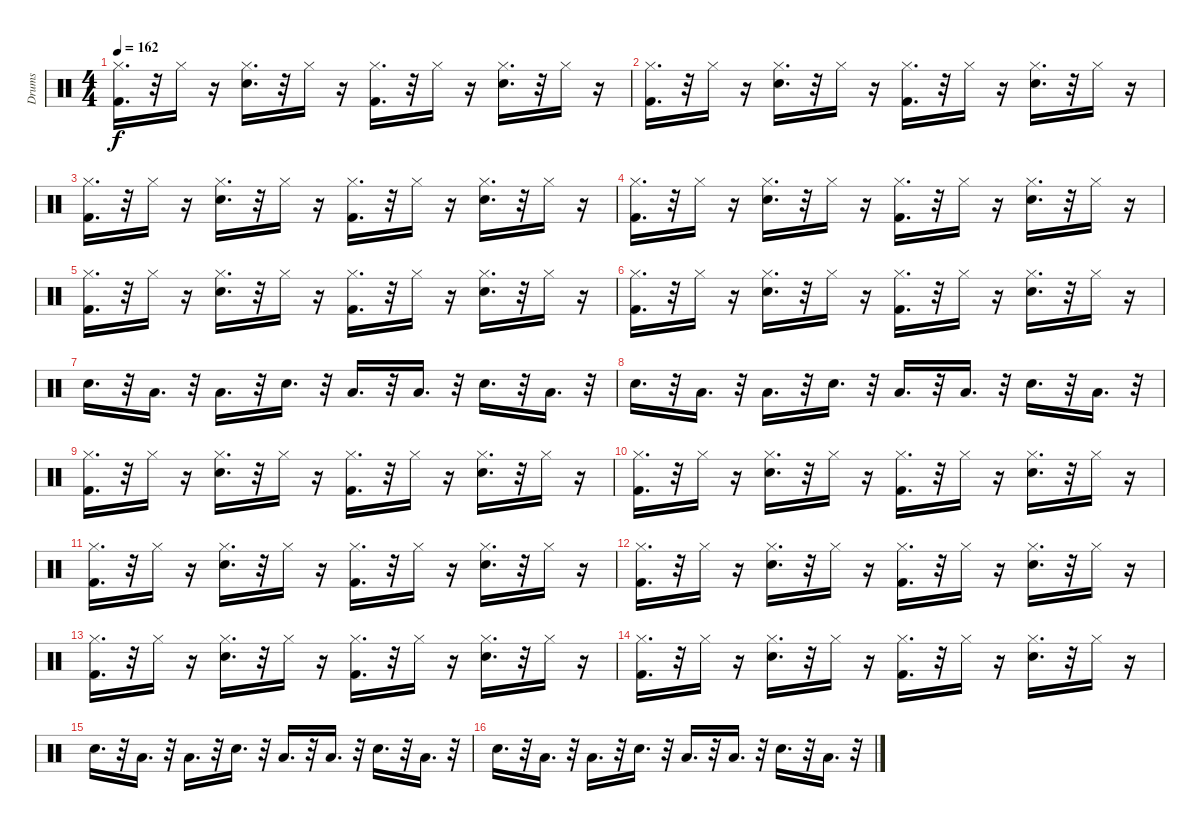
\track ("Drums" "Drums") {instrument percussion}
\staff {score}
\articulation defaults
\ts (4 4)
\tempo 162
\clef neutral
\ks c
("Hi-Hat (closed)" "Kick (hit) 2").16{d dy f} r.32 "Hi-Hat (closed)".16 r.16 ("Hi-Hat (closed)" "Snare (hit) 2").16{d} r.32 "Hi-Hat (closed)".16 r.16 ("Hi-Hat (closed)" "Kick (hit) 2").16{d} r.32 "Hi-Hat (closed)".16 r.16 ("Hi-Hat (closed)" "Snare (hit) 2").16{d} r.32 "Hi-Hat (closed)".16 r.16 |
("Hi-Hat (closed)" "Kick (hit) 2").16{d} r.32 "Hi-Hat (closed)".16 r.16 ("Hi-Hat (closed)" "Snare (hit) 2").16{d} r.32 "Hi-Hat (closed)".16 r.16 ("Hi-Hat (closed)" "Kick (hit) 2").16{d} r.32 "Hi-Hat (closed)".16 r.16 ("Hi-Hat (closed)" "Snare (hit) 2").16{d} r.32 "Hi-Hat (closed)".16 r.16 |
("Hi-Hat (closed)" "Kick (hit) 2").16{d} r.32 "Hi-Hat (closed)".16 r.16 ("Hi-Hat (closed)" "Snare (hit) 2").16{d} r.32 "Hi-Hat (closed)".16 r.16 ("Hi-Hat (closed)" "Kick (hit) 2").16{d} r.32 "Hi-Hat (closed)".16 r.16 ("Hi-Hat (closed)" "Snare (hit) 2").16{d} r.32 "Hi-Hat (closed)".16 r.16 |
("Hi-Hat (closed)" "Kick (hit) 2").16{d} r.32 "Hi-Hat (closed)".16 r.16 ("Hi-Hat (closed)" "Snare (hit) 2").16{d} r.32 "Hi-Hat (closed)".16 r.16 ("Hi-Hat (closed)" "Kick (hit) 2").16{d} r.32 "Hi-Hat (closed)".16 r.16 ("Hi-Hat (closed)" "Snare (hit) 2").16{d} r.32 "Hi-Hat (closed)".16 r.16 |
("Hi-Hat (closed)" "Kick (hit) 2").16{d} r.32 "Hi-Hat (closed)".16 r.16 ("Hi-Hat (closed)" "Snare (hit) 2").16{d} r.32 "Hi-Hat (closed)".16 r.16 ("Hi-Hat (closed)" "Kick (hit) 2").16{d} r.32 "Hi-Hat (closed)".16 r.16 ("Hi-Hat (closed)" "Snare (hit) 2").16{d} r.32 "Hi-Hat (closed)".16 r.16 |
("Hi-Hat (closed)" "Kick (hit) 2").16{d} r.32 "Hi-Hat (closed)".16 r.16 ("Hi-Hat (closed)" "Snare (hit) 2").16{d} r.32 "Hi-Hat (closed)".16 r.16 ("Hi-Hat (closed)" "Kick (hit) 2").16{d} r.32 "Hi-Hat (closed)".16 r.16 ("Hi-Hat (closed)" "Snare (hit) 2").16{d} r.32 "Hi-Hat (closed)".16 r.16 |
"Snare (hit) 2".16{d} r.32 "Low Floor Tom (hit)".16{d} r.32 "Low Floor Tom (hit)".16{d} r.32 "Snare (hit) 2".16{d} r.32 "Low Floor Tom (hit)".16{d} r.32 "Low Floor Tom (hit)".16{d} r.32 "Snare (hit) 2".16{d} r.32 "Low Floor Tom (hit)".16{d} r.32 |
"Snare (hit) 2".16{d} r.32 "Low Floor Tom (hit)".16{d} r.32 "Low Floor Tom (hit)".16{d} r.32 "Snare (hit) 2".16{d} r.32 "Low Floor Tom (hit)".16{d} r.32 "Low Floor Tom (hit)".16{d} r.32 "Snare (hit) 2".16{d} r.32 "Low Floor Tom (hit)".16{d} r.32 |
("Hi-Hat (closed)" "Kick (hit) 2").16{d} r.32 "Hi-Hat (closed)".16 r.16 ("Hi-Hat (closed)" "Snare (hit) 2").16{d} r.32 "Hi-Hat (closed)".16 r.16 ("Hi-Hat (closed)" "Kick (hit) 2").16{d} r.32 "Hi-Hat (closed)".16 r.16 ("Hi-Hat (closed)" "Snare (hit) 2").16{d} r.32 "Hi-Hat (closed)".16 r.16 |
("Hi-Hat (closed)" "Kick (hit) 2").16{d} r.32 "Hi-Hat (closed)".16 r.16 ("Hi-Hat (closed)" "Snare (hit) 2").16{d} r.32 "Hi-Hat (closed)".16 r.16 ("Hi-Hat (closed)" "Kick (hit) 2").16{d} r.32 "Hi-Hat (closed)".16 r.16 ("Hi-Hat (closed)" "Snare (hit) 2").16{d} r.32 "Hi-Hat (closed)".16 r.16 |
("Hi-Hat (closed)" "Kick (hit) 2").16{d} r.32 "Hi-Hat (closed)".16 r.16 ("Hi-Hat (closed)" "Snare (hit) 2").16{d} r.32 "Hi-Hat (closed)".16 r.16 ("Hi-Hat (closed)" "Kick (hit) 2").16{d} r.32 "Hi-Hat (closed)".16 r.16 ("Hi-Hat (closed)" "Snare (hit) 2").16{d} r.32 "Hi-Hat (closed)".16 r.16 |
("Hi-Hat (closed)" "Kick (hit) 2").16{d} r.32 "Hi-Hat (closed)".16 r.16 ("Hi-Hat (closed)" "Snare (hit) 2").16{d} r.32 "Hi-Hat (closed)".16 r.16 ("Hi-Hat (closed)" "Kick (hit) 2").16{d} r.32 "Hi-Hat (closed)".16 r.16 ("Hi-Hat (closed)" "Snare (hit) 2").16{d} r.32 "Hi-Hat (closed)".16 r.16 |
("Hi-Hat (closed)" "Kick (hit) 2").16{d} r.32 "Hi-Hat (closed)".16 r.16 ("Hi-Hat (closed)" "Snare (hit) 2").16{d} r.32 "Hi-Hat (closed)".16 r.16 ("Hi-Hat (closed)" "Kick (hit) 2").16{d} r.32 "Hi-Hat (closed)".16 r.16 ("Hi-Hat (closed)" "Snare (hit) 2").16{d} r.32 "Hi-Hat (closed)".16 r.16 |
("Hi-Hat (closed)" "Kick (hit) 2").16{d} r.32 "Hi-Hat (closed)".16 r.16 ("Hi-Hat (closed)" "Snare (hit) 2").16{d} r.32 "Hi-Hat (closed)".16 r.16 ("Hi-Hat (closed)" "Kick (hit) 2").16{d} r.32 "Hi-Hat (closed)".16 r.16 ("Hi-Hat (closed)" "Snare (hit) 2").16{d} r.32 "Hi-Hat (closed)".16 r.16 |
"Snare (hit) 2".16{d} r.32 "Low Floor Tom (hit)".16{d} r.32 "Low Floor Tom (hit)".16{d} r.32 "Snare (hit) 2".16{d} r.32 "Low Floor Tom (hit)".16{d} r.32 "Low Floor Tom (hit)".16{d} r.32 "Snare (hit) 2".16{d} r.32 "Low Floor Tom (hit)".16{d} r.32 |
"Snare (hit) 2".16{d} r.32 "Low Floor Tom (hit)".16{d} r.32 "Low Floor Tom (hit)".16{d} r.32 "Snare (hit) 2".16{d} r.32 "Low Floor Tom (hit)".16{d} r.32 "Low Floor Tom (hit)".16{d} r.32 "Snare (hit) 2".16{d} r.32 "Low Floor Tom (hit)".16{d} r.32
